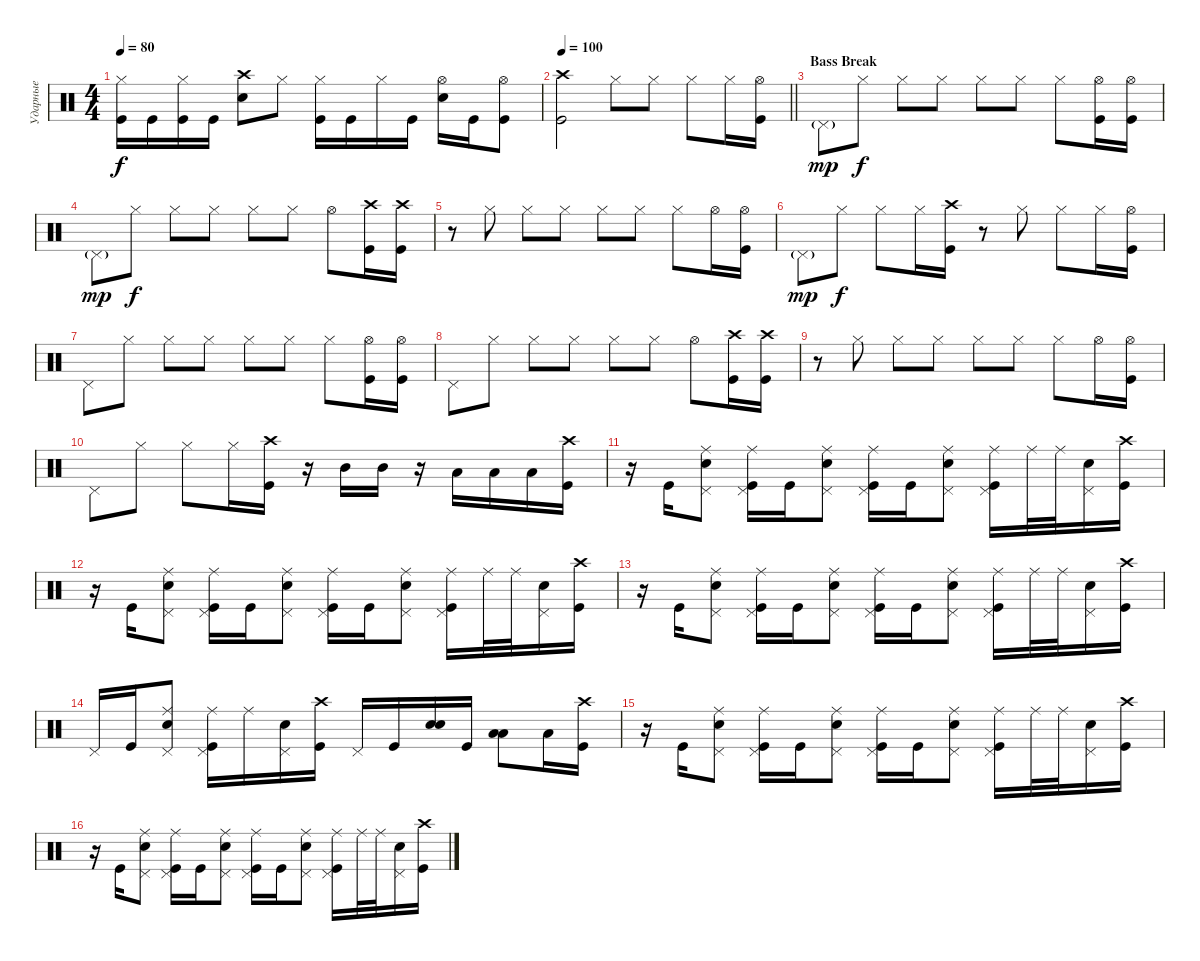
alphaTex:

\track ("Ударные" "Ударные") {instrument percussion}
\staff {score}
\articulation defaults
\ts (4 4)
\tempo 80
\clef neutral
\ks aminor
("Kick (hit)" "Hi-Hat (closed)").16{dy f} "Kick (hit)".16 ("Kick (hit)" "Hi-Hat (closed)").16 "Kick (hit)".16 ("Snare (hit) 2" "Crash high (hit)").8 "Hi-Hat (closed)".8 ("Hi-Hat (closed)" "Kick (hit)").16 "Kick (hit)".16 "Hi-Hat (closed)".16 "Kick (hit)".16 ("Snare (hit) 2" "Hi-Hat (open)").16 "Kick (hit)".16 ("Hi-Hat (open)" "Kick (hit)").8 |
\tempo 100
\barLineRight lightlight
("Kick (hit)" "Crash high (hit)").2 "Hi-Hat (closed)".8 "Hi-Hat (closed)".8 "Hi-Hat (closed)".8 "Hi-Hat (closed)".16 ("Hi-Hat (open)" "Kick (hit)").16 |
\section ("" "Bass Break")
"Pedal Hi-Hat (hit)"{g}.8{dy mp} "Hi-Hat (closed)".8{dy f} "Hi-Hat (closed)".8 "Hi-Hat (closed)".8 "Hi-Hat (closed)".8 "Hi-Hat (closed)".8 "Hi-Hat (closed)".8 ("Hi-Hat (open)" "Kick (hit)").16 ("Hi-Hat (open)" "Kick (hit)").16 |
"Pedal Hi-Hat (hit)"{g}.8{dy mp} "Hi-Hat (closed)".8{dy f} "Hi-Hat (closed)".8 "Hi-Hat (closed)".8 "Hi-Hat (closed)".8 "Hi-Hat (closed)".8 "Hi-Hat (open)".8 ("Crash high (hit)" "Kick (hit)").16 ("Kick (hit)" "Crash high (hit)").16 |
r.8 "Hi-Hat (closed)".8 "Hi-Hat (closed)".8 "Hi-Hat (closed)".8 "Hi-Hat (closed)".8 "Hi-Hat (closed)".8 "Hi-Hat (closed)".8 "Hi-Hat (open)".16 ("Hi-Hat (open)" "Kick (hit)").16 |
"Pedal Hi-Hat (hit)"{g}.8{dy mp} "Hi-Hat (closed)".8{dy f} "Hi-Hat (closed)".8 "Hi-Hat (closed)".16 ("Kick (hit)" "Crash high (hit)").16 r.8 "Hi-Hat (closed)".8 "Hi-Hat (closed)".8 "Hi-Hat (closed)".16 ("Hi-Hat (open)" "Kick (hit)").16 |
"Pedal Hi-Hat (hit)".8 "Hi-Hat (closed)".8 "Hi-Hat (closed)".8 "Hi-Hat (closed)".8 "Hi-Hat (closed)".8 "Hi-Hat (closed)".8 "Hi-Hat (closed)".8 ("Hi-Hat (open)" "Kick (hit)").16 ("Hi-Hat (open)" "Kick (hit)").16 |
"Pedal Hi-Hat (hit)".8 "Hi-Hat (closed)".8 "Hi-Hat (closed)".8 "Hi-Hat (closed)".8 "Hi-Hat (closed)".8 "Hi-Hat (closed)".8 "Hi-Hat (open)".8 ("Crash high (hit)" "Kick (hit)").16 ("Kick (hit)" "Crash high (hit)").16 |
r.8 "Hi-Hat (closed)".8 "Hi-Hat (closed)".8 "Hi-Hat (closed)".8 "Hi-Hat (closed)".8 "Hi-Hat (closed)".8 "Hi-Hat (closed)".8 "Hi-Hat (open)".16 ("Hi-Hat (open)" "Kick (hit)").16 |
"Pedal Hi-Hat (hit)".8 "Hi-Hat (closed)".8 "Hi-Hat (closed)".8 "Hi-Hat (closed)".16 ("Kick (hit)" "Crash high (hit)").16 r.16 "Mid Tom (hit)".16 "Mid Tom (hit)".16 r.16 "Low Tom (hit)".16 "Low Tom (hit)".16 "Low Tom (hit)".16 ("Kick (hit)" "Crash high (hit)").16 |
r.16 "Kick (hit)".16 ("Pedal Hi-Hat (hit)" "Snare (hit) 2" "Ride (middle)").8 ("Pedal Hi-Hat (hit)" "Kick (hit)" "Ride (middle)").16 "Kick (hit)".16 ("Snare (hit) 2" "Ride (middle)" "Pedal Hi-Hat (hit)").8 ("Kick (hit)" "Ride (middle)" "Pedal Hi-Hat (hit)").16 "Kick (hit)".16 ("Snare (hit) 2" "Ride (middle)" "Pedal Hi-Hat (hit)").8 ("Kick (hit)" "Ride (middle)" "Pedal Hi-Hat (hit)").16 "Ride (middle)".32 "Ride (middle)".32 ("Snare (hit) 2" "Pedal Hi-Hat (hit)").16 ("Kick (hit)" "Crash high (hit)").16 |
r.16 "Kick (hit)".16 ("Pedal Hi-Hat (hit)" "Snare (hit) 2" "Ride (middle)").8 ("Pedal Hi-Hat (hit)" "Kick (hit)" "Ride (middle)").16 "Kick (hit)".16 ("Snare (hit) 2" "Ride (middle)" "Pedal Hi-Hat (hit)").8 ("Kick (hit)" "Ride (middle)" "Pedal Hi-Hat (hit)").16 "Kick (hit)".16 ("Snare (hit) 2" "Ride (middle)" "Pedal Hi-Hat (hit)").8 ("Kick (hit)" "Ride (middle)" "Pedal Hi-Hat (hit)").16 "Ride (middle)".32 "Ride (middle)".32 ("Snare (hit) 2" "Pedal Hi-Hat (hit)").16 ("Kick (hit)" "Crash high (hit)").16 |
r.16 "Kick (hit)".16 ("Pedal Hi-Hat (hit)" "Snare (hit) 2" "Ride (middle)").8 ("Pedal Hi-Hat (hit)" "Kick (hit)" "Ride (middle)").16 "Kick (hit)".16 ("Snare (hit) 2" "Ride (middle)" "Pedal Hi-Hat (hit)").8 ("Kick (hit)" "Ride (middle)" "Pedal Hi-Hat (hit)").16 "Kick (hit)".16 ("Snare (hit) 2" "Ride (middle)" "Pedal Hi-Hat (hit)").8 ("Kick (hit)" "Ride (middle)" "Pedal Hi-Hat (hit)").16 "Ride (middle)".32 "Ride (middle)".32 ("Snare (hit) 2" "Pedal Hi-Hat (hit)").16 ("Kick (hit)" "Crash high (hit)").16 |
"Pedal Hi-Hat (hit)".16 "Kick (hit)".16 ("Ride (middle)" "Snare (hit) 2" "Pedal Hi-Hat (hit)").8 ("Ride (middle)" "Kick (hit)" "Pedal Hi-Hat (hit)").16 "Ride (middle)".16 ("Snare (hit) 2" "Pedal Hi-Hat (hit)").16 ("Kick (hit)" "Crash high (hit)").16 "Pedal Hi-Hat (hit)".16 "Kick (hit)".16 ("Snare (hit) 2" "Snare (hit) 2").16{bd 240} "Kick (hit)".16 ("Low Tom (hit)" "Low Tom (hit)").8{bd 240} "Low Tom (hit)".16 ("Kick (hit)" "Crash high (hit)").16 |
r.16 "Kick (hit)".16 ("Pedal Hi-Hat (hit)" "Snare (hit) 2" "Ride (middle)").8 ("Pedal Hi-Hat (hit)" "Kick (hit)" "Ride (middle)").16 "Kick (hit)".16 ("Snare (hit) 2" "Ride (middle)" "Pedal Hi-Hat (hit)").8 ("Kick (hit)" "Ride (middle)" "Pedal Hi-Hat (hit)").16 "Kick (hit)".16 ("Snare (hit) 2" "Ride (middle)" "Pedal Hi-Hat (hit)").8 ("Kick (hit)" "Ride (middle)" "Pedal Hi-Hat (hit)").16 "Ride (middle)".32 "Ride (middle)".32 ("Snare (hit) 2" "Pedal Hi-Hat (hit)").16 ("Kick (hit)" "Crash high (hit)").16 |
r.16 "Kick (hit)".16 ("Pedal Hi-Hat (hit)" "Snare (hit) 2" "Ride (middle)").8 ("Pedal Hi-Hat (hit)" "Kick (hit)" "Ride (middle)").16 "Kick (hit)".16 ("Snare (hit) 2" "Ride (middle)" "Pedal Hi-Hat (hit)").8 ("Kick (hit)" "Ride (middle)" "Pedal Hi-Hat (hit)").16 "Kick (hit)".16 ("Snare (hit) 2" "Ride (middle)" "Pedal Hi-Hat (hit)").8 ("Kick (hit)" "Ride (middle)" "Pedal Hi-Hat (hit)").16 "Ride (middle)".32 "Ride (middle)".32 ("Snare (hit) 2" "Pedal Hi-Hat (hit)").16 ("Kick (hit)" "Crash high (hit)").16
